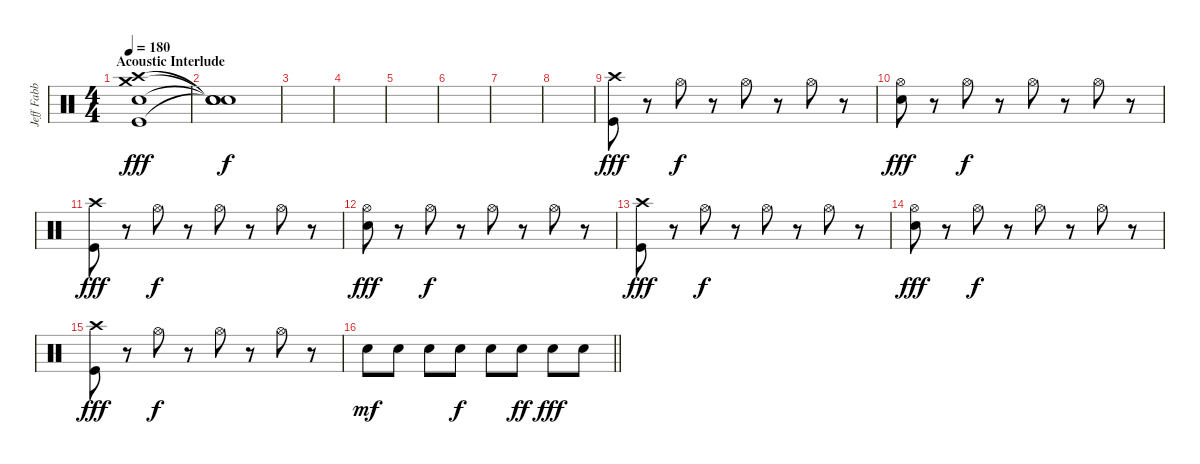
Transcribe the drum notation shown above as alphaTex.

\track ("Jeff Fabb (Drums)" "Jeff Fabb ") {instrument percussion}
\staff {score}
\articulation defaults
\ts (4 4)
\section ("" "Acoustic Interlude")
\tempo 180
\clef neutral
\ks c
("Crash high (hit)" "Crash medium (hit)" "Electric Snare (hit)" "Kick (hit)").1{dy fff} |
("Snare (hit)"{t} "Snare (hit)"{t} "Snare (hit)"{t} "Snare (hit)"{t}).1{dy f} |
|
|
|
|
|
|
("Crash high (hit)" "Kick (hit)").8{dy fff} r.8 "Hi-Hat (open)".8{dy f} r.8 "Hi-Hat (open)".8 r.8 "Hi-Hat (open)".8 r.8 |
("Hi-Hat (open)" "Electric Snare (hit)").8{dy fff} r.8 "Hi-Hat (open)".8{dy f} r.8 "Hi-Hat (open)".8 r.8 "Hi-Hat (open)".8 r.8 |
("Crash high (hit)" "Kick (hit)").8{dy fff} r.8 "Hi-Hat (open)".8{dy f} r.8 "Hi-Hat (open)".8 r.8 "Hi-Hat (open)".8 r.8 |
("Hi-Hat (open)" "Electric Snare (hit)").8{dy fff} r.8 "Hi-Hat (open)".8{dy f} r.8 "Hi-Hat (open)".8 r.8 "Hi-Hat (open)".8 r.8 |
("Crash high (hit)" "Kick (hit)").8{dy fff} r.8 "Hi-Hat (open)".8{dy f} r.8 "Hi-Hat (open)".8 r.8 "Hi-Hat (open)".8 r.8 |
("Hi-Hat (open)" "Electric Snare (hit)").8{dy fff} r.8 "Hi-Hat (open)".8{dy f} r.8 "Hi-Hat (open)".8 r.8 "Hi-Hat (open)".8 r.8 |
("Crash high (hit)" "Kick (hit)").8{dy fff} r.8 "Hi-Hat (open)".8{dy f} r.8 "Hi-Hat (open)".8 r.8 "Hi-Hat (open)".8 r.8 |
\barLineRight lightlight "Electric Snare (hit)".8{dy mf} "Electric Snare (hit)".8 "Electric Snare (hit)".8 "Electric Snare (hit)".8{dy f} "Electric Snare (hit)".8 "Electric Snare (hit)".8{dy ff} "Electric Snare (hit)".8{dy fff} "Electric Snare (hit)".8
